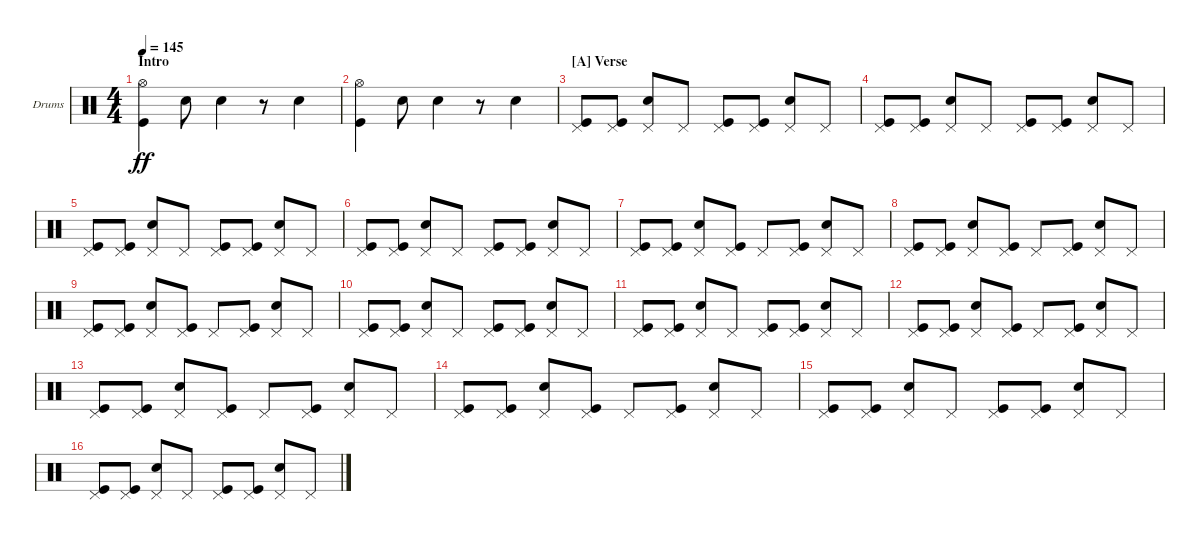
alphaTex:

\bracketExtendMode groupsimilarinstruments
\firstSystemTrackNameOrientation horizontal
\otherSystemsTrackNameOrientation horizontal
\track ("Fabrizio Moretti" "Drums") {instrument percussion}
\staff {score}
\articulation defaults
\ts (4 4)
\section ("" "Intro")
\tempo 145
\clef neutral
\ks c
("Hi-Hat (open)" "Kick (hit)").4{dy ff} "Snare (hit) 2".8 "Snare (hit) 2".4 r.8 "Snare (hit) 2".4 |
("Hi-Hat (open)" "Kick (hit)").4 "Snare (hit) 2".8 "Snare (hit) 2".4 r.8 "Snare (hit) 2".4 |
\section ("A" "Verse")
("Pedal Hi-Hat (hit)" "Kick (hit)").8 ("Pedal Hi-Hat (hit)" "Kick (hit)").8 ("Pedal Hi-Hat (hit)" "Snare (hit) 2").8 "Pedal Hi-Hat (hit)".8 ("Pedal Hi-Hat (hit)" "Kick (hit)").8 ("Pedal Hi-Hat (hit)" "Kick (hit)").8 ("Pedal Hi-Hat (hit)" "Snare (hit) 2").8 "Pedal Hi-Hat (hit)".8 |
("Pedal Hi-Hat (hit)" "Kick (hit)").8 ("Pedal Hi-Hat (hit)" "Kick (hit)").8 ("Pedal Hi-Hat (hit)" "Snare (hit) 2").8 "Pedal Hi-Hat (hit)".8 ("Pedal Hi-Hat (hit)" "Kick (hit)").8 ("Pedal Hi-Hat (hit)" "Kick (hit)").8 ("Pedal Hi-Hat (hit)" "Snare (hit) 2").8 "Pedal Hi-Hat (hit)".8 |
("Pedal Hi-Hat (hit)" "Kick (hit)").8 ("Pedal Hi-Hat (hit)" "Kick (hit)").8 ("Pedal Hi-Hat (hit)" "Snare (hit) 2").8 "Pedal Hi-Hat (hit)".8 ("Pedal Hi-Hat (hit)" "Kick (hit)").8 ("Pedal Hi-Hat (hit)" "Kick (hit)").8 ("Pedal Hi-Hat (hit)" "Snare (hit) 2").8 "Pedal Hi-Hat (hit)".8 |
("Pedal Hi-Hat (hit)" "Kick (hit)").8 ("Pedal Hi-Hat (hit)" "Kick (hit)").8 ("Pedal Hi-Hat (hit)" "Snare (hit) 2").8 "Pedal Hi-Hat (hit)".8 ("Pedal Hi-Hat (hit)" "Kick (hit)").8 ("Pedal Hi-Hat (hit)" "Kick (hit)").8 ("Pedal Hi-Hat (hit)" "Snare (hit) 2").8 "Pedal Hi-Hat (hit)".8 |
("Pedal Hi-Hat (hit)" "Kick (hit)").8 ("Pedal Hi-Hat (hit)" "Kick (hit)").8 ("Pedal Hi-Hat (hit)" "Snare (hit) 2").8 ("Pedal Hi-Hat (hit)" "Kick (hit)").8 "Pedal Hi-Hat (hit)".8 ("Pedal Hi-Hat (hit)" "Kick (hit)").8 ("Pedal Hi-Hat (hit)" "Snare (hit) 2").8 "Pedal Hi-Hat (hit)".8 |
("Pedal Hi-Hat (hit)" "Kick (hit)").8 ("Pedal Hi-Hat (hit)" "Kick (hit)").8 ("Pedal Hi-Hat (hit)" "Snare (hit) 2").8 ("Pedal Hi-Hat (hit)" "Kick (hit)").8 "Pedal Hi-Hat (hit)".8 ("Pedal Hi-Hat (hit)" "Kick (hit)").8 ("Pedal Hi-Hat (hit)" "Snare (hit) 2").8 "Pedal Hi-Hat (hit)".8 |
("Pedal Hi-Hat (hit)" "Kick (hit)").8 ("Pedal Hi-Hat (hit)" "Kick (hit)").8 ("Pedal Hi-Hat (hit)" "Snare (hit) 2").8 ("Pedal Hi-Hat (hit)" "Kick (hit)").8 "Pedal Hi-Hat (hit)".8 ("Pedal Hi-Hat (hit)" "Kick (hit)").8 ("Pedal Hi-Hat (hit)" "Snare (hit) 2").8 "Pedal Hi-Hat (hit)".8 |
("Pedal Hi-Hat (hit)" "Kick (hit)").8 ("Pedal Hi-Hat (hit)" "Kick (hit)").8 ("Pedal Hi-Hat (hit)" "Snare (hit) 2").8 "Pedal Hi-Hat (hit)".8 ("Pedal Hi-Hat (hit)" "Kick (hit)").8 ("Pedal Hi-Hat (hit)" "Kick (hit)").8 ("Pedal Hi-Hat (hit)" "Snare (hit) 2").8 "Pedal Hi-Hat (hit)".8 |
("Pedal Hi-Hat (hit)" "Kick (hit)").8 ("Pedal Hi-Hat (hit)" "Kick (hit)").8 ("Pedal Hi-Hat (hit)" "Snare (hit) 2").8 "Pedal Hi-Hat (hit)".8 ("Pedal Hi-Hat (hit)" "Kick (hit)").8 ("Pedal Hi-Hat (hit)" "Kick (hit)").8 ("Pedal Hi-Hat (hit)" "Snare (hit) 2").8 "Pedal Hi-Hat (hit)".8 |
("Pedal Hi-Hat (hit)" "Kick (hit)").8 ("Pedal Hi-Hat (hit)" "Kick (hit)").8 ("Pedal Hi-Hat (hit)" "Snare (hit) 2").8 ("Pedal Hi-Hat (hit)" "Kick (hit)").8 "Pedal Hi-Hat (hit)".8 ("Pedal Hi-Hat (hit)" "Kick (hit)").8 ("Pedal Hi-Hat (hit)" "Snare (hit) 2").8 "Pedal Hi-Hat (hit)".8 |
("Pedal Hi-Hat (hit)" "Kick (hit)").8 ("Pedal Hi-Hat (hit)" "Kick (hit)").8 ("Pedal Hi-Hat (hit)" "Snare (hit) 2").8 ("Pedal Hi-Hat (hit)" "Kick (hit)").8 "Pedal Hi-Hat (hit)".8 ("Pedal Hi-Hat (hit)" "Kick (hit)").8 ("Pedal Hi-Hat (hit)" "Snare (hit) 2").8 "Pedal Hi-Hat (hit)".8 |
("Pedal Hi-Hat (hit)" "Kick (hit)").8 ("Pedal Hi-Hat (hit)" "Kick (hit)").8 ("Pedal Hi-Hat (hit)" "Snare (hit) 2").8 ("Pedal Hi-Hat (hit)" "Kick (hit)").8 "Pedal Hi-Hat (hit)".8 ("Pedal Hi-Hat (hit)" "Kick (hit)").8 ("Pedal Hi-Hat (hit)" "Snare (hit) 2").8 "Pedal Hi-Hat (hit)".8 |
("Pedal Hi-Hat (hit)" "Kick (hit)").8 ("Pedal Hi-Hat (hit)" "Kick (hit)").8 ("Pedal Hi-Hat (hit)" "Snare (hit) 2").8 "Pedal Hi-Hat (hit)".8 ("Pedal Hi-Hat (hit)" "Kick (hit)").8 ("Pedal Hi-Hat (hit)" "Kick (hit)").8 ("Pedal Hi-Hat (hit)" "Snare (hit) 2").8 "Pedal Hi-Hat (hit)".8 |
("Pedal Hi-Hat (hit)" "Kick (hit)").8 ("Pedal Hi-Hat (hit)" "Kick (hit)").8 ("Pedal Hi-Hat (hit)" "Snare (hit) 2").8 "Pedal Hi-Hat (hit)".8 ("Pedal Hi-Hat (hit)" "Kick (hit)").8 ("Pedal Hi-Hat (hit)" "Kick (hit)").8 ("Pedal Hi-Hat (hit)" "Snare (hit) 2").8 "Pedal Hi-Hat (hit)".8
